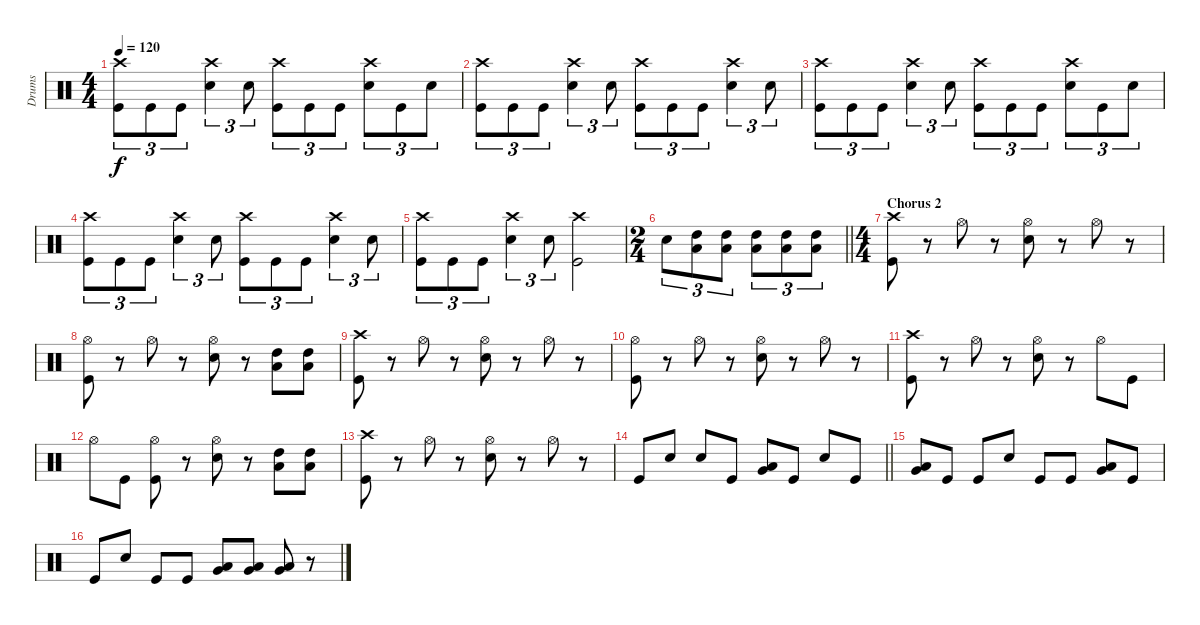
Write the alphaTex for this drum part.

\track ("Drums" "Drums") {instrument percussion}
\staff {score}
\articulation defaults
\ts (4 4)
\tempo 120
\clef neutral
\ks c
("Crash high (hit)" "Kick (hit)").8{tu (3 2) dy f} "Kick (hit)".8{tu (3 2)} "Kick (hit)".8{tu (3 2)} ("Crash high (hit)" "Snare (hit) 2").4{tu (3 2)} "Snare (hit) 2".8{tu (3 2)} ("Crash high (hit)" "Kick (hit)").8{tu (3 2)} "Kick (hit)".8{tu (3 2)} "Kick (hit)".8{tu (3 2)} ("Crash high (hit)" "Snare (hit) 2").8{tu (3 2)} "Kick (hit)".8{tu (3 2)} "Snare (hit) 2".8{tu (3 2)} |
("Crash high (hit)" "Kick (hit)").8{tu (3 2)} "Kick (hit)".8{tu (3 2)} "Kick (hit)".8{tu (3 2)} ("Crash high (hit)" "Snare (hit) 2").4{tu (3 2)} "Snare (hit) 2".8{tu (3 2)} ("Crash high (hit)" "Kick (hit)").8{tu (3 2)} "Kick (hit)".8{tu (3 2)} "Kick (hit)".8{tu (3 2)} ("Crash high (hit)" "Snare (hit) 2").4{tu (3 2)} "Snare (hit) 2".8{tu (3 2)} |
("Crash high (hit)" "Kick (hit)").8{tu (3 2)} "Kick (hit)".8{tu (3 2)} "Kick (hit)".8{tu (3 2)} ("Crash high (hit)" "Snare (hit) 2").4{tu (3 2)} "Snare (hit) 2".8{tu (3 2)} ("Crash high (hit)" "Kick (hit)").8{tu (3 2)} "Kick (hit)".8{tu (3 2)} "Kick (hit)".8{tu (3 2)} ("Crash high (hit)" "Snare (hit) 2").8{tu (3 2)} "Kick (hit)".8{tu (3 2)} "Snare (hit) 2".8{tu (3 2)} |
("Crash high (hit)" "Kick (hit)").8{tu (3 2)} "Kick (hit)".8{tu (3 2)} "Kick (hit)".8{tu (3 2)} ("Crash high (hit)" "Snare (hit) 2").4{tu (3 2)} "Snare (hit) 2".8{tu (3 2)} ("Crash high (hit)" "Kick (hit)").8{tu (3 2)} "Kick (hit)".8{tu (3 2)} "Kick (hit)".8{tu (3 2)} ("Crash high (hit)" "Snare (hit) 2").4{tu (3 2)} "Snare (hit) 2".8{tu (3 2)} |
("Crash high (hit)" "Kick (hit)").8{tu (3 2)} "Kick (hit)".8{tu (3 2)} "Kick (hit)".8{tu (3 2)} ("Crash high (hit)" "Snare (hit) 2").4{tu (3 2)} "Snare (hit) 2".8{tu (3 2)} ("Crash high (hit)" "Kick (hit)").2 |
\ts (2 4)
\barLineRight lightlight "Snare (hit) 2".8{tu (3 2)}
("High Tom (hit)" "Low Floor Tom (hit)").8{tu (3 2)} ("High Tom (hit)" "Low Floor Tom (hit)").8{tu (3 2)} ("High Tom (hit)" "Low Floor Tom (hit)").8{tu (3 2)} ("High Tom (hit)" "Low Floor Tom (hit)").8{tu (3 2)} ("High Tom (hit)" "Low Floor Tom (hit)").8{tu (3 2)} |
\ts (4 4)
\section ("" "Chorus 2")
("Crash high (hit)" "Kick (hit)").8 r.8 "Hi-Hat (open)".8 r.8 ("Hi-Hat (open)" "Snare (hit) 2").8 r.8 "Hi-Hat (open)".8 r.8 |
("Hi-Hat (open)" "Kick (hit)").8 r.8 "Hi-Hat (open)".8 r.8 ("Hi-Hat (open)" "Snare (hit) 2").8 r.8 ("High Tom (hit)" "Low Floor Tom (hit)").8 ("High Tom (hit)" "Low Floor Tom (hit)").8 |
("Crash high (hit)" "Kick (hit)").8 r.8 "Hi-Hat (open)".8 r.8 ("Hi-Hat (open)" "Snare (hit) 2").8 r.8 "Hi-Hat (open)".8 r.8 |
("Hi-Hat (open)" "Kick (hit)").8 r.8 "Hi-Hat (open)".8 r.8 ("Hi-Hat (open)" "Snare (hit) 2").8 r.8 "Hi-Hat (open)".8 r.8 |
("Crash high (hit)" "Kick (hit)").8 r.8 "Hi-Hat (open)".8 r.8 ("Hi-Hat (open)" "Snare (hit) 2").8 r.8 "Hi-Hat (open)".8 "Kick (hit)".8 |
"Hi-Hat (open)".8 "Kick (hit)".8 ("Hi-Hat (open)" "Kick (hit)").8 r.8 ("Hi-Hat (open)" "Snare (hit) 2").8 r.8 ("High Tom (hit)" "Low Floor Tom (hit)").8 ("High Tom (hit)" "Low Floor Tom (hit)").8 |
("Crash high (hit)" "Kick (hit)").8 r.8 "Hi-Hat (open)".8 r.8 ("Hi-Hat (open)" "Snare (hit) 2").8 r.8 "Hi-Hat (open)".8 r.8 |
\barLineRight lightlight "Kick (hit)".8 "Snare (hit) 2".8 "Snare (hit) 2".8 "Kick (hit)".8
("Low Tom (hit)" "Very Low Tom (hit)").8 "Kick (hit)".8 "Snare (hit) 2".8 "Kick (hit)".8 |
("Low Tom (hit)" "Very Low Tom (hit)").8 "Kick (hit)".8 "Kick (hit)".8 "Snare (hit) 2".8 "Kick (hit)".8 "Kick (hit)".8 ("Low Tom (hit)" "Very Low Tom (hit)").8 "Kick (hit)".8 |
"Kick (hit)".8 "Snare (hit) 2".8 "Kick (hit)".8 "Kick (hit)".8 ("Low Tom (hit)" "Very Low Tom (hit)").8 ("Low Tom (hit)" "Very Low Tom (hit)").8 ("Low Tom (hit)" "Very Low Tom (hit)").8 r.8
